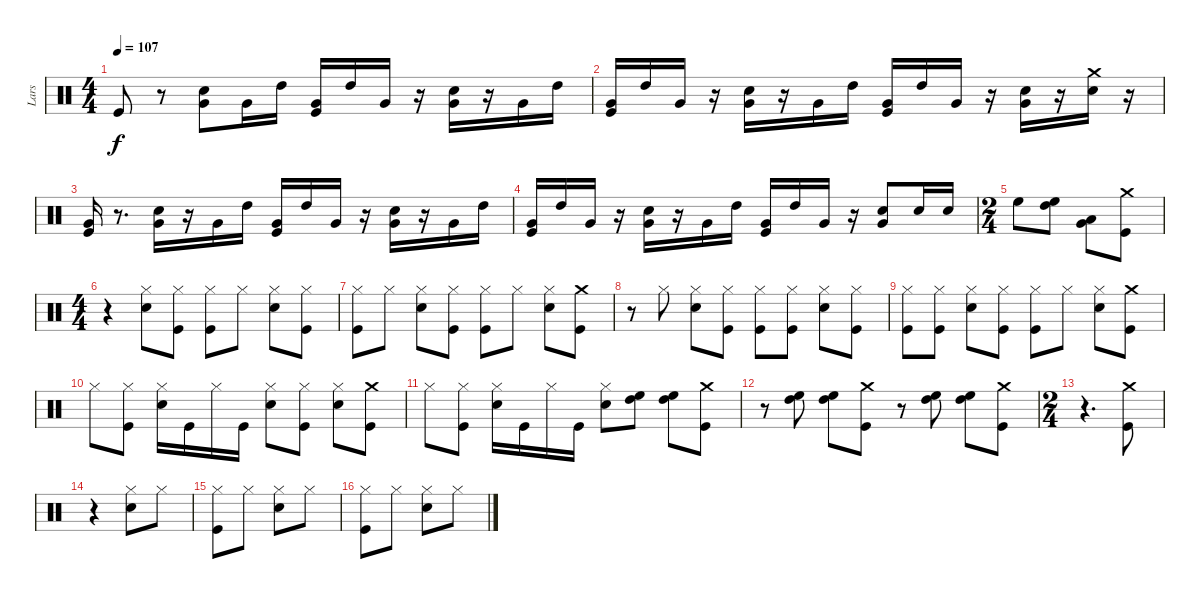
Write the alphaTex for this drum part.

\track ("Lars" "Lars") {instrument percussion}
\staff {score}
\articulation defaults
\ts (4 4)
\tempo 107
\clef neutral
\ks c "Kick (hit)".8{dy f}
r.8 ("Very Low Tom (hit)" "Snare (hit) 2").8 "Very Low Tom (hit)".16 "High Tom (hit)".16 ("Very Low Tom (hit)" "Kick (hit)").16 "High Tom (hit)".16 "Very Low Tom (hit)".16 r.16 ("Very Low Tom (hit)" "Snare (hit) 2").16 r.16 "Very Low Tom (hit)".16 "High Tom (hit)".16 |
("Very Low Tom (hit)" "Kick (hit)").16 "High Tom (hit)".16 "Very Low Tom (hit)".16 r.16 ("Very Low Tom (hit)" "Snare (hit) 2").16 r.16 "Very Low Tom (hit)".16 "High Tom (hit)".16 ("Very Low Tom (hit)" "Kick (hit)").16 "High Tom (hit)".16 "Very Low Tom (hit)".16 r.16 ("Very Low Tom (hit)" "Snare (hit) 2").16 r.16 ("Crash medium (hit)" "Snare (hit) 2").16 r.16 |
("Very Low Tom (hit)" "Kick (hit)").16 r.8{d} ("Very Low Tom (hit)" "Snare (hit) 2").16 r.16 "Very Low Tom (hit)".16 "High Tom (hit)".16 ("Very Low Tom (hit)" "Kick (hit)").16 "High Tom (hit)".16 "Very Low Tom (hit)".16 r.16 ("Very Low Tom (hit)" "Snare (hit) 2").16 r.16 "Very Low Tom (hit)".16 "High Tom (hit)".16 |
("Very Low Tom (hit)" "Kick (hit)").16 "High Tom (hit)".16 "Very Low Tom (hit)".16 r.16 ("Very Low Tom (hit)" "Snare (hit) 2").16 r.16 "Very Low Tom (hit)".16 "High Tom (hit)".16 ("Very Low Tom (hit)" "Kick (hit)").16 "High Tom (hit)".16 "Very Low Tom (hit)".16 r.16 ("Very Low Tom (hit)" "Snare (hit) 2").8 "Snare (hit) 2".16 "Snare (hit) 2".16 |
\ts (2 4)
"High Floor Tom (hit)".8 ("High Tom (hit)" "High Floor Tom (hit)").8 ("Low Floor Tom (hit)" "Very Low Tom (hit)").8 ("Crash medium (hit)" "Kick (hit)").8 |
\ts (4 4)
r.4 ("Snare (hit) 2" "Hi-Hat (closed)").8 ("Hi-Hat (closed)" "Kick (hit)").8 ("Kick (hit)" "Hi-Hat (closed)").8 "Hi-Hat (closed)".8 ("Snare (hit) 2" "Hi-Hat (closed)").8 ("Kick (hit)" "Hi-Hat (closed)").8 |
("Hi-Hat (closed)" "Kick (hit)").8 "Hi-Hat (closed)".8 ("Snare (hit) 2" "Hi-Hat (closed)").8 ("Kick (hit)" "Hi-Hat (closed)").8 ("Hi-Hat (closed)" "Kick (hit)").8 "Hi-Hat (closed)".8 ("Snare (hit) 2" "Hi-Hat (closed)").8 ("Crash medium (hit)" "Kick (hit)").8 |
r.8 "Hi-Hat (closed)".8 ("Snare (hit) 2" "Hi-Hat (closed)").8 ("Hi-Hat (closed)" "Kick (hit)").8 ("Hi-Hat (closed)" "Kick (hit)").8 ("Kick (hit)" "Hi-Hat (closed)").8 ("Snare (hit) 2" "Hi-Hat (closed)").8 ("Kick (hit)" "Hi-Hat (closed)").8 |
("Hi-Hat (closed)" "Kick (hit)").8 ("Kick (hit)" "Hi-Hat (closed)").8 ("Snare (hit) 2" "Hi-Hat (closed)").8 ("Kick (hit)" "Hi-Hat (closed)").8 ("Hi-Hat (closed)" "Kick (hit)").8 "Hi-Hat (closed)".8 ("Snare (hit) 2" "Hi-Hat (closed)").8 ("Crash medium (hit)" "Kick (hit)").8 |
"Hi-Hat (closed)".8 ("Kick (hit)" "Hi-Hat (closed)").8 ("Snare (hit) 2" "Hi-Hat (closed)").16 "Kick (hit)".16 "Hi-Hat (closed)".16 "Kick (hit)".16 ("Snare (hit) 2" "Hi-Hat (closed)").8 ("Kick (hit)" "Hi-Hat (closed)").8 ("Hi-Hat (closed)" "Snare (hit) 2").8 ("Crash medium (hit)" "Kick (hit)").8 |
"Hi-Hat (closed)".8 ("Kick (hit)" "Hi-Hat (closed)").8 ("Snare (hit) 2" "Hi-Hat (closed)").16 "Kick (hit)".16 "Hi-Hat (closed)".16 "Kick (hit)".16 ("Snare (hit) 2" "Hi-Hat (closed)").8 ("High Tom (hit)" "High Floor Tom (hit)").8 ("High Floor Tom (hit)" "High Tom (hit)").8 ("Crash medium (hit)" "Kick (hit)").8 |
r.8 ("High Tom (hit)" "High Floor Tom (hit)").8 ("High Floor Tom (hit)" "High Tom (hit)").8 ("Crash medium (hit)" "Kick (hit)").8 r.8 ("High Tom (hit)" "High Floor Tom (hit)").8 ("High Floor Tom (hit)" "High Tom (hit)").8 ("Crash medium (hit)" "Kick (hit)").8 |
\ts (2 4)
r.4{d} ("Crash medium (hit)" "Kick (hit)").8 |
r.4 ("Hi-Hat (closed)" "Snare (hit) 2").8 "Hi-Hat (closed)".8 |
("Kick (hit)" "Hi-Hat (closed)").8 "Hi-Hat (closed)".8 ("Snare (hit) 2" "Hi-Hat (closed)").8 "Hi-Hat (closed)".8 |
("Hi-Hat (closed)" "Kick (hit)").8 "Hi-Hat (closed)".8 ("Snare (hit) 2" "Hi-Hat (closed)").8 "Hi-Hat (closed)".8
